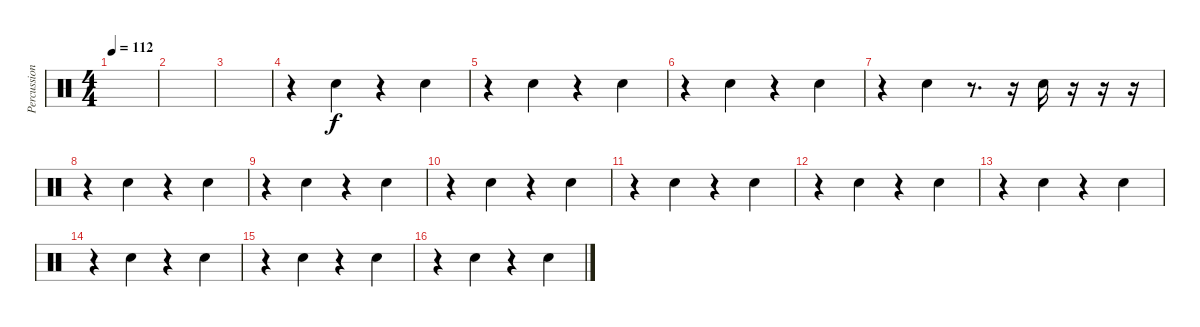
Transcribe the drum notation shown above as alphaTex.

\track ("Percussion" "Percussion") {instrument percussion}
\staff {score}
\articulation defaults
\ts (4 4)
\tempo 112
\clef neutral
\ks c
|
|
|
r.4 "Snare (hit) 2".4 r.4 "Snare (hit) 2".4 |
r.4 "Snare (hit) 2".4 r.4 "Snare (hit) 2".4 |
r.4 "Snare (hit) 2".4 r.4 "Snare (hit) 2".4 |
r.4 "Snare (hit) 2".4 r.8{d} r.16 "Snare (hit) 2".16 r.16 r.16 r.16 |
r.4 "Snare (hit) 2".4 r.4 "Snare (hit) 2".4 |
r.4 "Snare (hit) 2".4 r.4 "Snare (hit) 2".4 |
r.4 "Snare (hit) 2".4 r.4 "Snare (hit) 2".4 |
r.4 "Snare (hit) 2".4 r.4 "Snare (hit) 2".4 |
r.4 "Snare (hit) 2".4 r.4 "Snare (hit) 2".4 |
r.4 "Snare (hit) 2".4 r.4 "Snare (hit) 2".4 |
r.4 "Snare (hit) 2".4 r.4 "Snare (hit) 2".4 |
r.4 "Snare (hit) 2".4 r.4 "Snare (hit) 2".4 |
r.4 "Snare (hit) 2".4 r.4 "Snare (hit) 2".4
